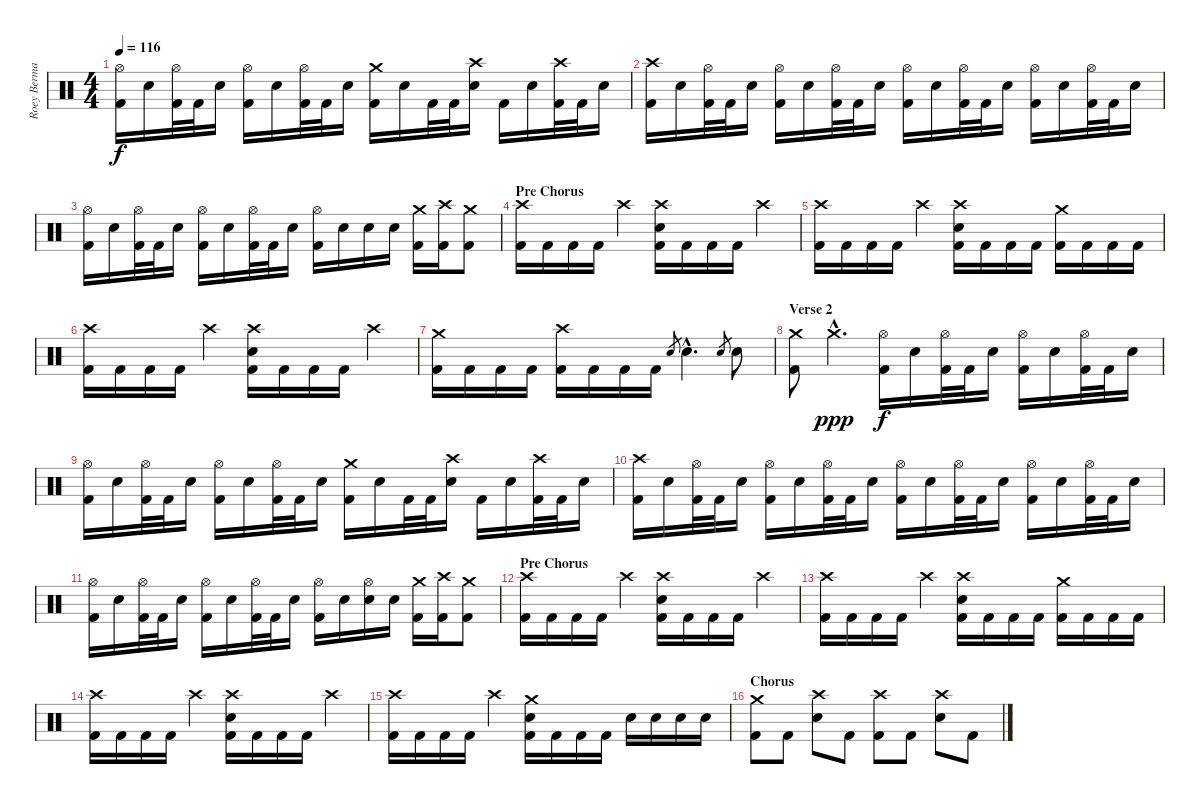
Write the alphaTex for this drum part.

\track ("Roey Berman" "Roey Berma") {instrument percussion}
\staff {score}
\articulation defaults
\ts (4 4)
\tempo 116
\clef neutral
\ks c
("Hi-Hat (open)" "Kick (hit) 2").16{dy f} "Electric Snare (hit)".16 ("Hi-Hat (open)" "Kick (hit) 2").32 "Kick (hit) 2".32 "Electric Snare (hit)".16 ("Hi-Hat (open)" "Kick (hit) 2").16 "Electric Snare (hit)".16 ("Hi-Hat (open)" "Kick (hit) 2").32 "Kick (hit) 2".32 "Electric Snare (hit)".16 ("Crash medium (hit)" "Kick (hit) 2").16 "Electric Snare (hit)".16 "Kick (hit) 2".32 "Kick (hit) 2".32 ("Crash high (hit)" "Electric Snare (hit)").16 "Kick (hit) 2".16 "Electric Snare (hit)".16 ("Crash high (hit)" "Kick (hit) 2").32 "Kick (hit) 2".32 "Electric Snare (hit)".16 |
("Crash high (hit)" "Kick (hit) 2").16 "Electric Snare (hit)".16 ("Hi-Hat (open)" "Kick (hit) 2").32 "Kick (hit) 2".32 "Electric Snare (hit)".16 ("Hi-Hat (open)" "Kick (hit) 2").16 "Electric Snare (hit)".16 ("Hi-Hat (open)" "Kick (hit) 2").32 "Kick (hit) 2".32 "Electric Snare (hit)".16 ("Hi-Hat (open)" "Kick (hit) 2").16 "Electric Snare (hit)".16 ("Hi-Hat (open)" "Kick (hit) 2").32 "Kick (hit) 2".32 "Electric Snare (hit)".16 ("Hi-Hat (open)" "Kick (hit) 2").16 "Electric Snare (hit)".16 ("Hi-Hat (open)" "Kick (hit) 2").32 "Kick (hit) 2".32 "Electric Snare (hit)".16 |
("Hi-Hat (open)" "Kick (hit) 2").16 "Electric Snare (hit)".16 ("Hi-Hat (open)" "Kick (hit) 2").32 "Kick (hit) 2".32 "Electric Snare (hit)".16 ("Hi-Hat (open)" "Kick (hit) 2").16 "Electric Snare (hit)".16 ("Hi-Hat (open)" "Kick (hit) 2").32 "Kick (hit) 2".32 "Electric Snare (hit)".16 ("Hi-Hat (open)" "Kick (hit) 2").16 "Electric Snare (hit)".16 "Electric Snare (hit)".16 "Electric Snare (hit)".16 ("Crash medium (hit)" "Kick (hit) 2").16 ("Crash high (hit)" "Kick (hit) 2").16 ("Crash medium (hit)" "Kick (hit) 2").8 |
\section ("" "Pre Chorus")
("Crash high (hit)" "Kick (hit) 2").16 "Kick (hit) 2".16 "Kick (hit) 2".16 "Kick (hit) 2".16 "Crash high (hit)".4 ("Crash high (hit)" "Electric Snare (hit)" "Kick (hit) 2").16 "Kick (hit) 2".16 "Kick (hit) 2".16 "Kick (hit) 2".16 "Crash high (hit)".4 |
("Crash high (hit)" "Kick (hit) 2").16 "Kick (hit) 2".16 "Kick (hit) 2".16 "Kick (hit) 2".16 "Crash high (hit)".4 ("Crash high (hit)" "Electric Snare (hit)" "Kick (hit) 2").16 "Kick (hit) 2".16 "Kick (hit) 2".16 "Kick (hit) 2".16 ("Crash medium (hit)" "Kick (hit) 2").16 "Kick (hit) 2".16 "Kick (hit) 2".16 "Kick (hit) 2".16 |
("Crash high (hit)" "Kick (hit) 2").16 "Kick (hit) 2".16 "Kick (hit) 2".16 "Kick (hit) 2".16 "Crash high (hit)".4 ("Crash high (hit)" "Electric Snare (hit)" "Kick (hit) 2").16 "Kick (hit) 2".16 "Kick (hit) 2".16 "Kick (hit) 2".16 "Crash high (hit)".4 |
("Crash medium (hit)" "Kick (hit) 2").16 "Kick (hit) 2".16 "Kick (hit) 2".16 "Kick (hit) 2".16 ("Crash high (hit)" "Kick (hit) 2").16 "Kick (hit) 2".16 "Kick (hit) 2".16 "Kick (hit) 2".16 "Electric Snare (hit)".8{gr} "Electric Snare (hit)"{hac}.4{d} "Electric Snare (hit)".8{gr} "Electric Snare (hit)".8 |
\section ("" "Verse 2")
("Crash medium (hit)" "Kick (hit) 2").8 "Crash medium (hit)"{hac}.4{d dy ppp} ("Hi-Hat (open)" "Kick (hit) 2").16{dy f} "Electric Snare (hit)".16 ("Hi-Hat (open)" "Kick (hit) 2").32 "Kick (hit) 2".32 "Electric Snare (hit)".16 ("Hi-Hat (open)" "Kick (hit) 2").16 "Electric Snare (hit)".16 ("Hi-Hat (open)" "Kick (hit) 2").32 "Kick (hit) 2".32 "Electric Snare (hit)".16 |
("Hi-Hat (open)" "Kick (hit) 2").16 "Electric Snare (hit)".16 ("Hi-Hat (open)" "Kick (hit) 2").32 "Kick (hit) 2".32 "Electric Snare (hit)".16 ("Hi-Hat (open)" "Kick (hit) 2").16 "Electric Snare (hit)".16 ("Hi-Hat (open)" "Kick (hit) 2").32 "Kick (hit) 2".32 "Electric Snare (hit)".16 ("Crash medium (hit)" "Kick (hit) 2").16 "Electric Snare (hit)".16 "Kick (hit) 2".32 "Kick (hit) 2".32 ("Crash high (hit)" "Electric Snare (hit)").16 "Kick (hit) 2".16 "Electric Snare (hit)".16 ("Crash high (hit)" "Kick (hit) 2").32 "Kick (hit) 2".32 "Electric Snare (hit)".16 |
("Crash high (hit)" "Kick (hit) 2").16 "Electric Snare (hit)".16 ("Hi-Hat (open)" "Kick (hit) 2").32 "Kick (hit) 2".32 "Electric Snare (hit)".16 ("Hi-Hat (open)" "Kick (hit) 2").16 "Electric Snare (hit)".16 ("Hi-Hat (open)" "Kick (hit) 2").32 "Kick (hit) 2".32 "Electric Snare (hit)".16 ("Hi-Hat (open)" "Kick (hit) 2").16 "Electric Snare (hit)".16 ("Hi-Hat (open)" "Kick (hit) 2").32 "Kick (hit) 2".32 "Electric Snare (hit)".16 ("Hi-Hat (open)" "Kick (hit) 2").16 "Electric Snare (hit)".16 ("Hi-Hat (open)" "Kick (hit) 2").32 "Kick (hit) 2".32 "Electric Snare (hit)".16 |
("Hi-Hat (open)" "Kick (hit) 2").16 "Electric Snare (hit)".16 ("Hi-Hat (open)" "Kick (hit) 2").32 "Kick (hit) 2".32 "Electric Snare (hit)".16 ("Hi-Hat (open)" "Kick (hit) 2").16 "Electric Snare (hit)".16 ("Hi-Hat (open)" "Kick (hit) 2").32 "Kick (hit) 2".32 "Electric Snare (hit)".16 ("Hi-Hat (open)" "Kick (hit) 2").16 "Electric Snare (hit)".16 ("Hi-Hat (open)" "Electric Snare (hit)").16 "Electric Snare (hit)".16 ("Crash medium (hit)" "Kick (hit) 2").16 ("Crash high (hit)" "Kick (hit) 2").16 ("Crash medium (hit)" "Kick (hit) 2").8 |
\section ("" "Pre Chorus")
("Crash high (hit)" "Kick (hit) 2").16 "Kick (hit) 2".16 "Kick (hit) 2".16 "Kick (hit) 2".16 "Crash high (hit)".4 ("Crash high (hit)" "Electric Snare (hit)" "Kick (hit) 2").16 "Kick (hit) 2".16 "Kick (hit) 2".16 "Kick (hit) 2".16 "Crash high (hit)".4 |
("Crash high (hit)" "Kick (hit) 2").16 "Kick (hit) 2".16 "Kick (hit) 2".16 "Kick (hit) 2".16 "Crash high (hit)".4 ("Crash high (hit)" "Electric Snare (hit)" "Kick (hit) 2").16 "Kick (hit) 2".16 "Kick (hit) 2".16 "Kick (hit) 2".16 ("Crash medium (hit)" "Kick (hit) 2").16 "Kick (hit) 2".16 "Kick (hit) 2".16 "Kick (hit) 2".16 |
("Crash high (hit)" "Kick (hit) 2").16 "Kick (hit) 2".16 "Kick (hit) 2".16 "Kick (hit) 2".16 "Crash high (hit)".4 ("Crash high (hit)" "Electric Snare (hit)" "Kick (hit) 2").16 "Kick (hit) 2".16 "Kick (hit) 2".16 "Kick (hit) 2".16 "Crash high (hit)".4 |
("Crash high (hit)" "Kick (hit) 2").16 "Kick (hit) 2".16 "Kick (hit) 2".16 "Kick (hit) 2".16 "Crash high (hit)".4 ("Crash medium (hit)" "Electric Snare (hit)" "Kick (hit) 2").16 "Kick (hit) 2".16 "Kick (hit) 2".16 "Kick (hit) 2".16 "Electric Snare (hit)".16 "Electric Snare (hit)".16 "Electric Snare (hit)".16 "Electric Snare (hit)".16 |
\section ("" "Chorus")
("Crash medium (hit)" "Kick (hit) 2").8 "Kick (hit) 2".8 ("Crash high (hit)" "Electric Snare (hit)").8 "Kick (hit) 2".8 ("Crash high (hit)" "Kick (hit) 2").8 "Kick (hit) 2".8 ("Crash high (hit)" "Electric Snare (hit)").8 "Kick (hit) 2".8
